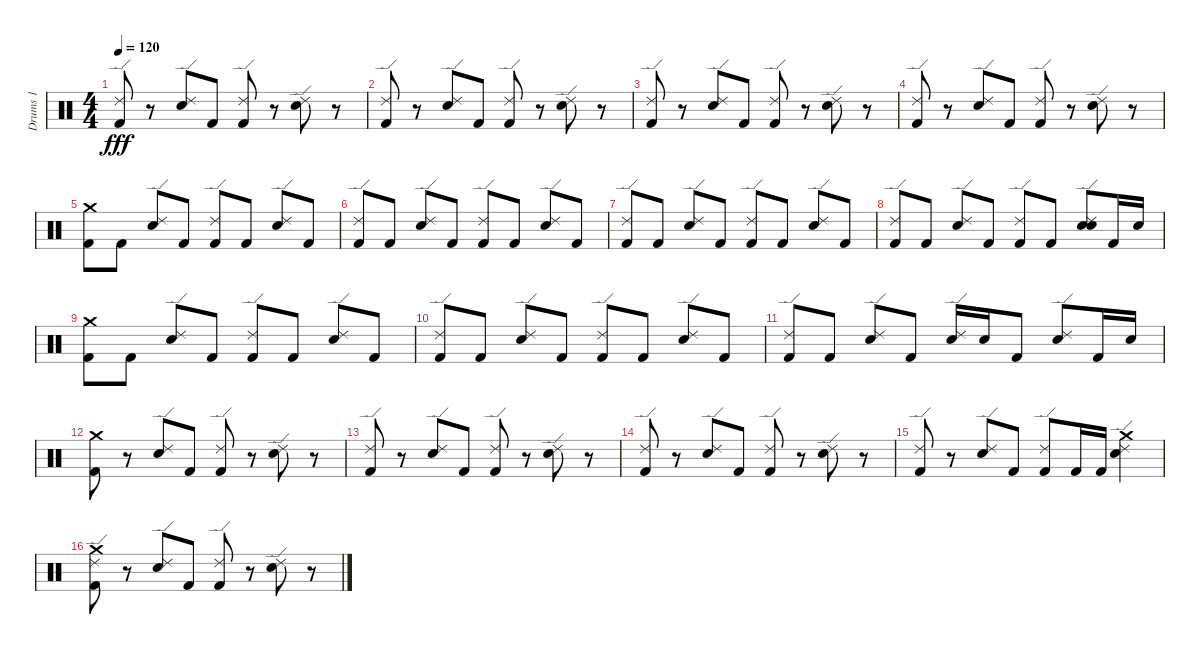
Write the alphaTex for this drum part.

\track ("Drums 1" "Drums 1") {instrument percussion}
\staff {score}
\articulation defaults
\ts (4 4)
\tempo 120
\clef neutral
\ks c
("Kick (hit) 2" "Ride (edge) 2").8{dy fff} r.8 ("Electric Snare (hit)" "Ride (edge) 2").8 "Kick (hit) 2".8 ("Kick (hit) 2" "Ride (edge) 2").8 r.8 ("Electric Snare (hit)" "Ride (edge) 2").8 r.8 |
("Kick (hit) 2" "Ride (edge) 2").8 r.8 ("Electric Snare (hit)" "Ride (edge) 2").8 "Kick (hit) 2".8 ("Kick (hit) 2" "Ride (edge) 2").8 r.8 ("Electric Snare (hit)" "Ride (edge) 2").8 r.8 |
("Kick (hit) 2" "Ride (edge) 2").8 r.8 ("Electric Snare (hit)" "Ride (edge) 2").8 "Kick (hit) 2".8 ("Kick (hit) 2" "Ride (edge) 2").8 r.8 ("Electric Snare (hit)" "Ride (edge) 2").8 r.8 |
("Kick (hit) 2" "Ride (edge) 2").8 r.8 ("Electric Snare (hit)" "Ride (edge) 2").8 "Kick (hit) 2".8 ("Kick (hit) 2" "Ride (edge) 2").8 r.8 ("Electric Snare (hit)" "Ride (edge) 2").8 r.8 |
("Crash medium (hit)" "Kick (hit) 2").8 "Kick (hit) 2".8 ("Ride (edge) 2" "Electric Snare (hit)").8 "Kick (hit) 2".8 ("Kick (hit) 2" "Ride (edge) 2").8 "Kick (hit) 2".8 ("Ride (edge) 2" "Electric Snare (hit)").8 "Kick (hit) 2".8 |
("Ride (edge) 2" "Kick (hit) 2").8 "Kick (hit) 2".8 ("Ride (edge) 2" "Electric Snare (hit)").8 "Kick (hit) 2".8 ("Ride (edge) 2" "Kick (hit) 2").8 "Kick (hit) 2".8 ("Ride (edge) 2" "Electric Snare (hit)").8 "Kick (hit) 2".8 |
("Ride (edge) 2" "Kick (hit) 2").8 "Kick (hit) 2".8 ("Ride (edge) 2" "Electric Snare (hit)").8 "Kick (hit) 2".8 ("Ride (edge) 2" "Kick (hit) 2").8 "Kick (hit) 2".8 ("Ride (edge) 2" "Electric Snare (hit)").8 "Kick (hit) 2".8 |
("Ride (edge) 2" "Kick (hit) 2").8 "Kick (hit) 2".8 ("Ride (edge) 2" "Electric Snare (hit)").8 "Kick (hit) 2".8 ("Ride (edge) 2" "Kick (hit) 2").8 "Kick (hit) 2".8 ("Ride (edge) 2" "Snare (hit) 2" "Electric Snare (hit)").8 "Kick (hit) 2".16 "Electric Snare (hit)".16 |
("Crash medium (hit)" "Kick (hit) 2").8 "Kick (hit) 2".8 ("Electric Snare (hit)" "Ride (edge) 2").8 "Kick (hit) 2".8 ("Kick (hit) 2" "Ride (edge) 2").8 "Kick (hit) 2".8 ("Electric Snare (hit)" "Ride (edge) 2").8 "Kick (hit) 2".8 |
("Kick (hit) 2" "Ride (edge) 2").8 "Kick (hit) 2".8 ("Electric Snare (hit)" "Ride (edge) 2").8 "Kick (hit) 2".8 ("Kick (hit) 2" "Ride (edge) 2").8 "Kick (hit) 2".8 ("Electric Snare (hit)" "Ride (edge) 2").8 "Kick (hit) 2".8 |
("Kick (hit) 2" "Ride (edge) 2").8 "Kick (hit) 2".8 ("Electric Snare (hit)" "Ride (edge) 2").8 "Kick (hit) 2".8 ("Electric Snare (hit)" "Ride (edge) 2").16 "Electric Snare (hit)".16 "Kick (hit) 2".8 ("Electric Snare (hit)" "Ride (edge) 2").8 "Kick (hit) 2".16 "Electric Snare (hit)".16 |
("Crash medium (hit)" "Kick (hit) 2").8 r.8 ("Ride (edge) 2" "Electric Snare (hit)").8 "Kick (hit) 2".8 ("Ride (edge) 2" "Kick (hit) 2").8 r.8 ("Ride (edge) 2" "Electric Snare (hit)").8 r.8 |
("Kick (hit) 2" "Ride (edge) 2").8 r.8 ("Electric Snare (hit)" "Ride (edge) 2").8 "Kick (hit) 2".8 ("Kick (hit) 2" "Ride (edge) 2").8 r.8 ("Electric Snare (hit)" "Ride (edge) 2").8 r.8 |
("Kick (hit) 2" "Ride (edge) 2").8 r.8 ("Electric Snare (hit)" "Ride (edge) 2").8 "Kick (hit) 2".8 ("Kick (hit) 2" "Ride (edge) 2").8 r.8 ("Electric Snare (hit)" "Ride (edge) 2").8 r.8 |
("Kick (hit) 2" "Ride (edge) 2").8 r.8 ("Electric Snare (hit)" "Ride (edge) 2").8 "Kick (hit) 2".8 ("Kick (hit) 2" "Ride (edge) 2").8 "Kick (hit) 2".16 "Kick (hit) 2".16 ("Electric Snare (hit)" "Ride (edge) 2" "Crash medium (hit)").4 |
("Crash medium (hit)" "Kick (hit) 2" "Ride (edge) 2").8 r.8 ("Electric Snare (hit)" "Ride (edge) 2").8 "Kick (hit) 2".8 ("Kick (hit) 2" "Ride (edge) 2").8 r.8 ("Electric Snare (hit)" "Ride (edge) 2").8 r.8
